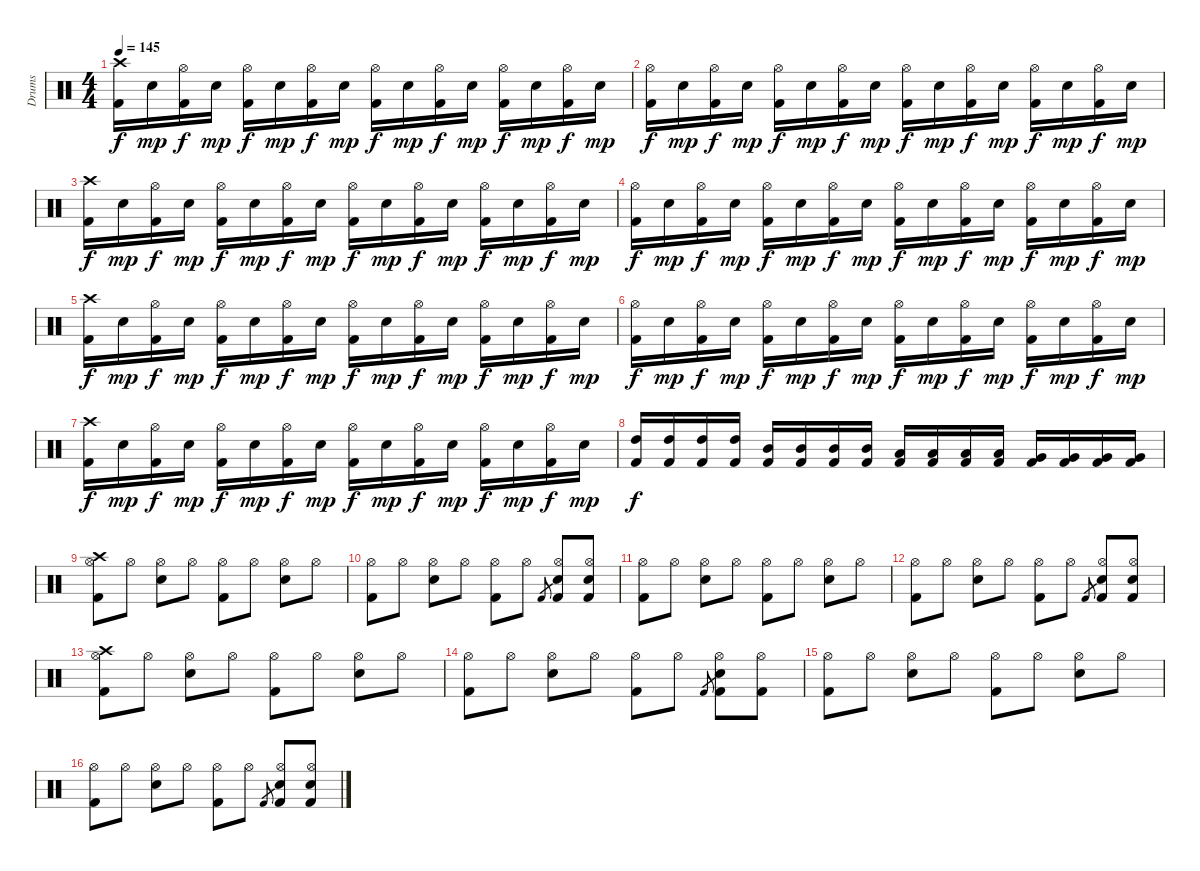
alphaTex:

\track ("Drums" "Drums") {instrument percussion}
\staff {score}
\articulation defaults
\ts (4 4)
\tempo 145
\clef neutral
\ks c
("Crash high (hit)" "Kick (hit) 2").16{dy f} "Electric Snare (hit)".16{dy mp} ("Hi-Hat (open)" "Kick (hit) 2").16{dy f} "Electric Snare (hit)".16{dy mp} ("Hi-Hat (open)" "Kick (hit) 2").16{dy f} "Electric Snare (hit)".16{dy mp} ("Hi-Hat (open)" "Kick (hit) 2").16{dy f} "Electric Snare (hit)".16{dy mp} ("Hi-Hat (open)" "Kick (hit) 2").16{dy f} "Electric Snare (hit)".16{dy mp} ("Hi-Hat (open)" "Kick (hit) 2").16{dy f} "Electric Snare (hit)".16{dy mp} ("Hi-Hat (open)" "Kick (hit) 2").16{dy f} "Electric Snare (hit)".16{dy mp} ("Hi-Hat (open)" "Kick (hit) 2").16{dy f} "Electric Snare (hit)".16{dy mp} |
("Hi-Hat (open)" "Kick (hit) 2").16{dy f} "Electric Snare (hit)".16{dy mp} ("Hi-Hat (open)" "Kick (hit) 2").16{dy f} "Electric Snare (hit)".16{dy mp} ("Hi-Hat (open)" "Kick (hit) 2").16{dy f} "Electric Snare (hit)".16{dy mp} ("Hi-Hat (open)" "Kick (hit) 2").16{dy f} "Electric Snare (hit)".16{dy mp} ("Hi-Hat (open)" "Kick (hit) 2").16{dy f} "Electric Snare (hit)".16{dy mp} ("Hi-Hat (open)" "Kick (hit) 2").16{dy f} "Electric Snare (hit)".16{dy mp} ("Hi-Hat (open)" "Kick (hit) 2").16{dy f} "Electric Snare (hit)".16{dy mp} ("Hi-Hat (open)" "Kick (hit) 2").16{dy f} "Electric Snare (hit)".16{dy mp} |
("Crash high (hit)" "Kick (hit) 2").16{dy f} "Electric Snare (hit)".16{dy mp} ("Hi-Hat (open)" "Kick (hit) 2").16{dy f} "Electric Snare (hit)".16{dy mp} ("Hi-Hat (open)" "Kick (hit) 2").16{dy f} "Electric Snare (hit)".16{dy mp} ("Hi-Hat (open)" "Kick (hit) 2").16{dy f} "Electric Snare (hit)".16{dy mp} ("Hi-Hat (open)" "Kick (hit) 2").16{dy f} "Electric Snare (hit)".16{dy mp} ("Hi-Hat (open)" "Kick (hit) 2").16{dy f} "Electric Snare (hit)".16{dy mp} ("Hi-Hat (open)" "Kick (hit) 2").16{dy f} "Electric Snare (hit)".16{dy mp} ("Hi-Hat (open)" "Kick (hit) 2").16{dy f} "Electric Snare (hit)".16{dy mp} |
("Hi-Hat (open)" "Kick (hit) 2").16{dy f} "Electric Snare (hit)".16{dy mp} ("Hi-Hat (open)" "Kick (hit) 2").16{dy f} "Electric Snare (hit)".16{dy mp} ("Hi-Hat (open)" "Kick (hit) 2").16{dy f} "Electric Snare (hit)".16{dy mp} ("Hi-Hat (open)" "Kick (hit) 2").16{dy f} "Electric Snare (hit)".16{dy mp} ("Hi-Hat (open)" "Kick (hit) 2").16{dy f} "Electric Snare (hit)".16{dy mp} ("Hi-Hat (open)" "Kick (hit) 2").16{dy f} "Electric Snare (hit)".16{dy mp} ("Hi-Hat (open)" "Kick (hit) 2").16{dy f} "Electric Snare (hit)".16{dy mp} ("Hi-Hat (open)" "Kick (hit) 2").16{dy f} "Electric Snare (hit)".16{dy mp} |
("Crash high (hit)" "Kick (hit) 2").16{dy f} "Electric Snare (hit)".16{dy mp} ("Hi-Hat (open)" "Kick (hit) 2").16{dy f} "Electric Snare (hit)".16{dy mp} ("Hi-Hat (open)" "Kick (hit) 2").16{dy f} "Electric Snare (hit)".16{dy mp} ("Hi-Hat (open)" "Kick (hit) 2").16{dy f} "Electric Snare (hit)".16{dy mp} ("Hi-Hat (open)" "Kick (hit) 2").16{dy f} "Electric Snare (hit)".16{dy mp} ("Hi-Hat (open)" "Kick (hit) 2").16{dy f} "Electric Snare (hit)".16{dy mp} ("Hi-Hat (open)" "Kick (hit) 2").16{dy f} "Electric Snare (hit)".16{dy mp} ("Hi-Hat (open)" "Kick (hit) 2").16{dy f} "Electric Snare (hit)".16{dy mp} |
("Hi-Hat (open)" "Kick (hit) 2").16{dy f} "Electric Snare (hit)".16{dy mp} ("Hi-Hat (open)" "Kick (hit) 2").16{dy f} "Electric Snare (hit)".16{dy mp} ("Hi-Hat (open)" "Kick (hit) 2").16{dy f} "Electric Snare (hit)".16{dy mp} ("Hi-Hat (open)" "Kick (hit) 2").16{dy f} "Electric Snare (hit)".16{dy mp} ("Hi-Hat (open)" "Kick (hit) 2").16{dy f} "Electric Snare (hit)".16{dy mp} ("Hi-Hat (open)" "Kick (hit) 2").16{dy f} "Electric Snare (hit)".16{dy mp} ("Hi-Hat (open)" "Kick (hit) 2").16{dy f} "Electric Snare (hit)".16{dy mp} ("Hi-Hat (open)" "Kick (hit) 2").16{dy f} "Electric Snare (hit)".16{dy mp} |
("Crash high (hit)" "Kick (hit) 2").16{dy f} "Electric Snare (hit)".16{dy mp} ("Hi-Hat (open)" "Kick (hit) 2").16{dy f} "Electric Snare (hit)".16{dy mp} ("Hi-Hat (open)" "Kick (hit) 2").16{dy f} "Electric Snare (hit)".16{dy mp} ("Hi-Hat (open)" "Kick (hit) 2").16{dy f} "Electric Snare (hit)".16{dy mp} ("Hi-Hat (open)" "Kick (hit) 2").16{dy f} "Electric Snare (hit)".16{dy mp} ("Hi-Hat (open)" "Kick (hit) 2").16{dy f} "Electric Snare (hit)".16{dy mp} ("Hi-Hat (open)" "Kick (hit) 2").16{dy f} "Electric Snare (hit)".16{dy mp} ("Hi-Hat (open)" "Kick (hit) 2").16{dy f} "Electric Snare (hit)".16{dy mp} |
("High Tom (hit)" "Kick (hit) 2").16{dy f} ("High Tom (hit)" "Kick (hit) 2").16 ("High Tom (hit)" "Kick (hit) 2").16 ("High Tom (hit)" "Kick (hit) 2").16 ("Mid Tom (hit)" "Kick (hit) 2").16 ("Mid Tom (hit)" "Kick (hit) 2").16 ("Mid Tom (hit)" "Kick (hit) 2").16 ("Mid Tom (hit)" "Kick (hit) 2").16 ("Low Tom (hit)" "Kick (hit) 2").16 ("Low Tom (hit)" "Kick (hit) 2").16 ("Low Tom (hit)" "Kick (hit) 2").16 ("Low Tom (hit)" "Kick (hit) 2").16 ("Very Low Tom (hit)" "Kick (hit) 2").16 ("Very Low Tom (hit)" "Kick (hit) 2").16 ("Very Low Tom (hit)" "Kick (hit) 2").16 ("Very Low Tom (hit)" "Kick (hit) 2").16 |
("Crash high (hit)" "Hi-Hat (open)" "Kick (hit) 2").8 "Hi-Hat (open)".8 ("Hi-Hat (open)" "Snare (hit) 2").8 "Hi-Hat (open)".8 ("Hi-Hat (open)" "Kick (hit) 2").8 "Hi-Hat (open)".8 ("Hi-Hat (open)" "Snare (hit) 2").8 "Hi-Hat (open)".8 |
("Hi-Hat (open)" "Kick (hit) 2").8 "Hi-Hat (open)".8 ("Hi-Hat (open)" "Snare (hit) 2").8 "Hi-Hat (open)".8 ("Hi-Hat (open)" "Kick (hit) 2").8 "Hi-Hat (open)".8 "Kick (hit) 2".8{gr} ("Hi-Hat (open)" "Snare (hit) 2" "Kick (hit) 2").8 ("Hi-Hat (open)" "Snare (hit) 2" "Kick (hit) 2").8 |
("Hi-Hat (open)" "Kick (hit) 2").8 "Hi-Hat (open)".8 ("Hi-Hat (open)" "Snare (hit) 2").8 "Hi-Hat (open)".8 ("Hi-Hat (open)" "Kick (hit) 2").8 "Hi-Hat (open)".8 ("Hi-Hat (open)" "Snare (hit) 2").8 "Hi-Hat (open)".8 |
("Hi-Hat (open)" "Kick (hit) 2").8 "Hi-Hat (open)".8 ("Hi-Hat (open)" "Snare (hit) 2").8 "Hi-Hat (open)".8 ("Hi-Hat (open)" "Kick (hit) 2").8 "Hi-Hat (open)".8 "Kick (hit) 2".8{gr} ("Hi-Hat (open)" "Snare (hit) 2" "Kick (hit) 2").8 ("Hi-Hat (open)" "Snare (hit) 2" "Kick (hit) 2").8 |
("Crash high (hit)" "Hi-Hat (open)" "Kick (hit) 2").8 "Hi-Hat (open)".8 ("Hi-Hat (open)" "Snare (hit) 2").8 "Hi-Hat (open)".8 ("Hi-Hat (open)" "Kick (hit) 2").8 "Hi-Hat (open)".8 ("Hi-Hat (open)" "Snare (hit) 2").8 "Hi-Hat (open)".8 |
("Hi-Hat (open)" "Kick (hit) 2").8 "Hi-Hat (open)".8 ("Hi-Hat (open)" "Snare (hit) 2").8 "Hi-Hat (open)".8 ("Hi-Hat (open)" "Kick (hit) 2").8 "Hi-Hat (open)".8 "Kick (hit) 2".8{gr} ("Hi-Hat (open)" "Snare (hit) 2" "Kick (hit) 2").8 ("Hi-Hat (open)" "Kick (hit) 2").8 |
("Hi-Hat (open)" "Kick (hit) 2").8 "Hi-Hat (open)".8 ("Hi-Hat (open)" "Snare (hit) 2").8 "Hi-Hat (open)".8 ("Hi-Hat (open)" "Kick (hit) 2").8 "Hi-Hat (open)".8 ("Hi-Hat (open)" "Snare (hit) 2").8 "Hi-Hat (open)".8 |
("Hi-Hat (open)" "Kick (hit) 2").8 "Hi-Hat (open)".8 ("Hi-Hat (open)" "Snare (hit) 2").8 "Hi-Hat (open)".8 ("Hi-Hat (open)" "Kick (hit) 2").8 "Hi-Hat (open)".8 "Kick (hit) 2".8{gr} ("Hi-Hat (open)" "Snare (hit) 2" "Kick (hit) 2").8 ("Hi-Hat (open)" "Snare (hit) 2" "Kick (hit) 2").8
